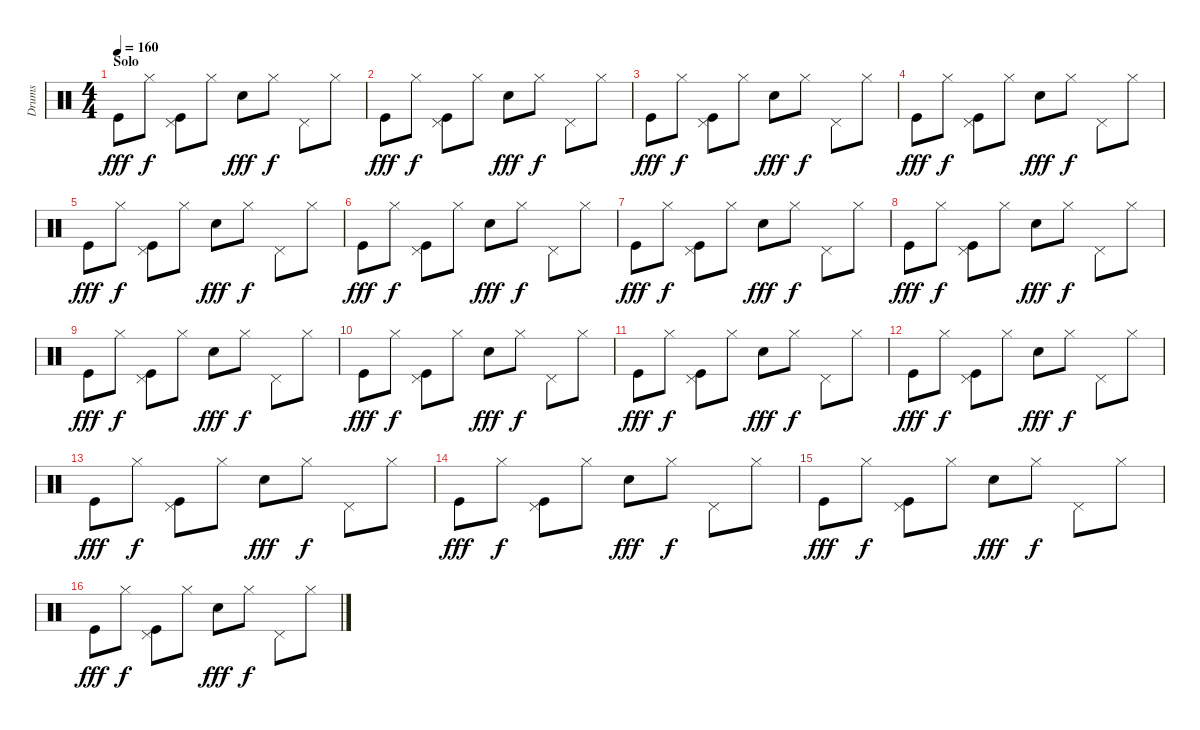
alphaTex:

\track ("Drums" "Drums") {instrument percussion}
\staff {score}
\articulation defaults
\ts (4 4)
\section ("" "Solo")
\tempo 160
\clef neutral
\ks c "Kick (hit)".8{dy fff} "Hi-Hat (closed)".8{dy f}
("Kick (hit)" "Pedal Hi-Hat (hit)").8 "Hi-Hat (closed)".8 "Snare (hit) 2".8{dy fff} "Hi-Hat (closed)".8{dy f} "Pedal Hi-Hat (hit)".8 "Hi-Hat (closed)".8 |
"Kick (hit)".8{dy fff} "Hi-Hat (closed)".8{dy f} ("Kick (hit)" "Pedal Hi-Hat (hit)").8 "Hi-Hat (closed)".8 "Snare (hit) 2".8{dy fff} "Hi-Hat (closed)".8{dy f} "Pedal Hi-Hat (hit)".8 "Hi-Hat (closed)".8 |
"Kick (hit)".8{dy fff} "Hi-Hat (closed)".8{dy f} ("Kick (hit)" "Pedal Hi-Hat (hit)").8 "Hi-Hat (closed)".8 "Snare (hit) 2".8{dy fff} "Hi-Hat (closed)".8{dy f} "Pedal Hi-Hat (hit)".8 "Hi-Hat (closed)".8 |
"Kick (hit)".8{dy fff} "Hi-Hat (closed)".8{dy f} ("Kick (hit)" "Pedal Hi-Hat (hit)").8 "Hi-Hat (closed)".8 "Snare (hit) 2".8{dy fff} "Hi-Hat (closed)".8{dy f} "Pedal Hi-Hat (hit)".8 "Hi-Hat (closed)".8 |
"Kick (hit)".8{dy fff} "Hi-Hat (closed)".8{dy f} ("Kick (hit)" "Pedal Hi-Hat (hit)").8 "Hi-Hat (closed)".8 "Snare (hit) 2".8{dy fff} "Hi-Hat (closed)".8{dy f} "Pedal Hi-Hat (hit)".8 "Hi-Hat (closed)".8 |
"Kick (hit)".8{dy fff} "Hi-Hat (closed)".8{dy f} ("Kick (hit)" "Pedal Hi-Hat (hit)").8 "Hi-Hat (closed)".8 "Snare (hit) 2".8{dy fff} "Hi-Hat (closed)".8{dy f} "Pedal Hi-Hat (hit)".8 "Hi-Hat (closed)".8 |
"Kick (hit)".8{dy fff} "Hi-Hat (closed)".8{dy f} ("Kick (hit)" "Pedal Hi-Hat (hit)").8 "Hi-Hat (closed)".8 "Snare (hit) 2".8{dy fff} "Hi-Hat (closed)".8{dy f} "Pedal Hi-Hat (hit)".8 "Hi-Hat (closed)".8 |
"Kick (hit)".8{dy fff} "Hi-Hat (closed)".8{dy f} ("Kick (hit)" "Pedal Hi-Hat (hit)").8 "Hi-Hat (closed)".8 "Snare (hit) 2".8{dy fff} "Hi-Hat (closed)".8{dy f} "Pedal Hi-Hat (hit)".8 "Hi-Hat (closed)".8 |
"Kick (hit)".8{dy fff} "Hi-Hat (closed)".8{dy f} ("Kick (hit)" "Pedal Hi-Hat (hit)").8 "Hi-Hat (closed)".8 "Snare (hit) 2".8{dy fff} "Hi-Hat (closed)".8{dy f} "Pedal Hi-Hat (hit)".8 "Hi-Hat (closed)".8 |
"Kick (hit)".8{dy fff} "Hi-Hat (closed)".8{dy f} ("Kick (hit)" "Pedal Hi-Hat (hit)").8 "Hi-Hat (closed)".8 "Snare (hit) 2".8{dy fff} "Hi-Hat (closed)".8{dy f} "Pedal Hi-Hat (hit)".8 "Hi-Hat (closed)".8 |
"Kick (hit)".8{dy fff} "Hi-Hat (closed)".8{dy f} ("Kick (hit)" "Pedal Hi-Hat (hit)").8 "Hi-Hat (closed)".8 "Snare (hit) 2".8{dy fff} "Hi-Hat (closed)".8{dy f} "Pedal Hi-Hat (hit)".8 "Hi-Hat (closed)".8 |
"Kick (hit)".8{dy fff} "Hi-Hat (closed)".8{dy f} ("Kick (hit)" "Pedal Hi-Hat (hit)").8 "Hi-Hat (closed)".8 "Snare (hit) 2".8{dy fff} "Hi-Hat (closed)".8{dy f} "Pedal Hi-Hat (hit)".8 "Hi-Hat (closed)".8 |
"Kick (hit)".8{dy fff} "Hi-Hat (closed)".8{dy f} ("Kick (hit)" "Pedal Hi-Hat (hit)").8 "Hi-Hat (closed)".8 "Snare (hit) 2".8{dy fff} "Hi-Hat (closed)".8{dy f} "Pedal Hi-Hat (hit)".8 "Hi-Hat (closed)".8 |
"Kick (hit)".8{dy fff} "Hi-Hat (closed)".8{dy f} ("Kick (hit)" "Pedal Hi-Hat (hit)").8 "Hi-Hat (closed)".8 "Snare (hit) 2".8{dy fff} "Hi-Hat (closed)".8{dy f} "Pedal Hi-Hat (hit)".8 "Hi-Hat (closed)".8 |
"Kick (hit)".8{dy fff} "Hi-Hat (closed)".8{dy f} ("Kick (hit)" "Pedal Hi-Hat (hit)").8 "Hi-Hat (closed)".8 "Snare (hit) 2".8{dy fff} "Hi-Hat (closed)".8{dy f} "Pedal Hi-Hat (hit)".8 "Hi-Hat (closed)".8 |
"Kick (hit)".8{dy fff} "Hi-Hat (closed)".8{dy f} ("Kick (hit)" "Pedal Hi-Hat (hit)").8 "Hi-Hat (closed)".8 "Snare (hit) 2".8{dy fff} "Hi-Hat (closed)".8{dy f} "Pedal Hi-Hat (hit)".8 "Hi-Hat (closed)".8
